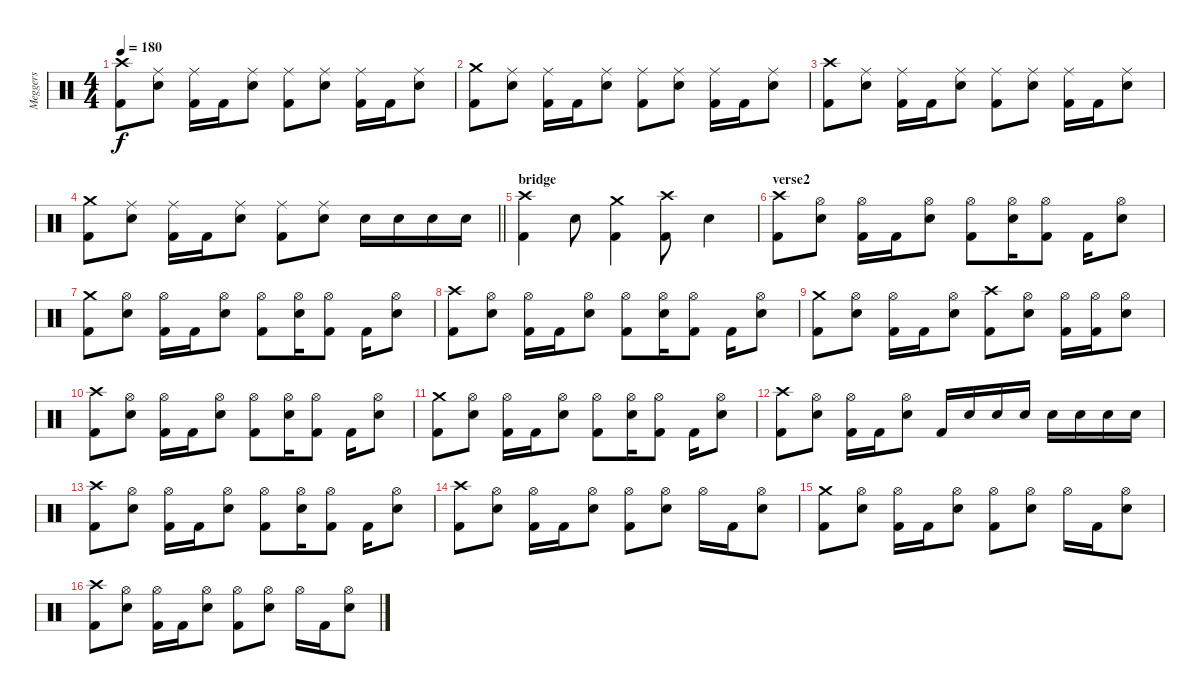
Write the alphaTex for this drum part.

\track ("Meggers" "Meggers") {instrument percussion}
\staff {score}
\articulation defaults
\ts (4 4)
\tempo 180
\clef neutral
\ks c
("Crash high (hit)" "Kick (hit) 2").8{dy f} ("Ride (middle)" "Snare (hit) 2").8 ("Ride (middle)" "Kick (hit) 2").16 "Kick (hit) 2".16 ("Ride (middle)" "Snare (hit) 2").8 ("Ride (middle)" "Kick (hit) 2").8 ("Ride (middle)" "Snare (hit) 2").8 ("Ride (middle)" "Kick (hit) 2").16 "Kick (hit) 2".16 ("Ride (middle)" "Snare (hit) 2").8 |
("Crash medium (hit)" "Kick (hit) 2").8 ("Ride (middle)" "Snare (hit) 2").8 ("Ride (middle)" "Kick (hit) 2").16 "Kick (hit) 2".16 ("Ride (middle)" "Snare (hit) 2").8 ("Ride (middle)" "Kick (hit) 2").8 ("Ride (middle)" "Snare (hit) 2").8 ("Ride (middle)" "Kick (hit) 2").16 "Kick (hit) 2".16 ("Ride (middle)" "Snare (hit) 2").8 |
("Crash high (hit)" "Kick (hit) 2").8 ("Ride (middle)" "Snare (hit) 2").8 ("Ride (middle)" "Kick (hit) 2").16 "Kick (hit) 2".16 ("Ride (middle)" "Snare (hit) 2").8 ("Ride (middle)" "Kick (hit) 2").8 ("Ride (middle)" "Snare (hit) 2").8 ("Ride (middle)" "Kick (hit) 2").16 "Kick (hit) 2".16 ("Ride (middle)" "Snare (hit) 2").8 |
\barLineRight lightlight
("Crash medium (hit)" "Kick (hit) 2").8 ("Ride (middle)" "Snare (hit) 2").8 ("Ride (middle)" "Kick (hit) 2").16 "Kick (hit) 2".16 ("Ride (middle)" "Snare (hit) 2").8 ("Ride (middle)" "Kick (hit) 2").8 ("Ride (middle)" "Snare (hit) 2").8 "Snare (hit) 2".16 "Snare (hit) 2".16 "Snare (hit) 2".16 "Snare (hit) 2".16 |
\section ("" "bridge")
("Crash high (hit)" "Kick (hit) 2").4 "Snare (hit) 2".8 ("Crash medium (hit)" "Kick (hit) 2").4 ("Crash high (hit)" "Kick (hit) 2").8 "Snare (hit) 2".4 |
\section ("" "verse2")
("Crash high (hit)" "Kick (hit) 2").8 ("Hi-Hat (open)" "Snare (hit) 2").8 ("Hi-Hat (open)" "Kick (hit) 2").16 "Kick (hit) 2".16 ("Hi-Hat (open)" "Snare (hit) 2").8 ("Hi-Hat (open)" "Kick (hit) 2").8 ("Hi-Hat (open)" "Snare (hit) 2").16 ("Hi-Hat (open)" "Kick (hit) 2").8 "Kick (hit) 2".16 ("Hi-Hat (open)" "Snare (hit) 2").8 |
("Crash medium (hit)" "Kick (hit) 2").8 ("Hi-Hat (open)" "Snare (hit) 2").8 ("Hi-Hat (open)" "Kick (hit) 2").16 "Kick (hit) 2".16 ("Hi-Hat (open)" "Snare (hit) 2").8 ("Hi-Hat (open)" "Kick (hit) 2").8 ("Hi-Hat (open)" "Snare (hit) 2").16 ("Hi-Hat (open)" "Kick (hit) 2").8 "Kick (hit) 2".16 ("Hi-Hat (open)" "Snare (hit) 2").8 |
("Crash high (hit)" "Kick (hit) 2").8 ("Hi-Hat (open)" "Snare (hit) 2").8 ("Hi-Hat (open)" "Kick (hit) 2").16 "Kick (hit) 2".16 ("Hi-Hat (open)" "Snare (hit) 2").8 ("Hi-Hat (open)" "Kick (hit) 2").8 ("Hi-Hat (open)" "Snare (hit) 2").16 ("Hi-Hat (open)" "Kick (hit) 2").8 "Kick (hit) 2".16 ("Hi-Hat (open)" "Snare (hit) 2").8 |
("Crash medium (hit)" "Kick (hit) 2").8 ("Hi-Hat (open)" "Snare (hit) 2").8 ("Hi-Hat (open)" "Kick (hit) 2").16 "Kick (hit) 2".16 ("Hi-Hat (open)" "Snare (hit) 2").8 ("Crash high (hit)" "Kick (hit) 2").8 ("Hi-Hat (open)" "Snare (hit) 2").8 ("Hi-Hat (open)" "Kick (hit) 2").16 ("Hi-Hat (open)" "Kick (hit) 2").16 ("Hi-Hat (open)" "Snare (hit) 2").8 |
("Crash high (hit)" "Kick (hit) 2").8 ("Hi-Hat (open)" "Snare (hit) 2").8 ("Hi-Hat (open)" "Kick (hit) 2").16 "Kick (hit) 2".16 ("Hi-Hat (open)" "Snare (hit) 2").8 ("Hi-Hat (open)" "Kick (hit) 2").8 ("Hi-Hat (open)" "Snare (hit) 2").16 ("Hi-Hat (open)" "Kick (hit) 2").8 "Kick (hit) 2".16 ("Hi-Hat (open)" "Snare (hit) 2").8 |
("Crash medium (hit)" "Kick (hit) 2").8 ("Hi-Hat (open)" "Snare (hit) 2").8 ("Hi-Hat (open)" "Kick (hit) 2").16 "Kick (hit) 2".16 ("Hi-Hat (open)" "Snare (hit) 2").8 ("Hi-Hat (open)" "Kick (hit) 2").8 ("Hi-Hat (open)" "Snare (hit) 2").16 ("Hi-Hat (open)" "Kick (hit) 2").8 "Kick (hit) 2".16 ("Hi-Hat (open)" "Snare (hit) 2").8 |
("Crash high (hit)" "Kick (hit) 2").8 ("Hi-Hat (open)" "Snare (hit) 2").8 ("Hi-Hat (open)" "Kick (hit) 2").16 "Kick (hit) 2".16 ("Hi-Hat (open)" "Snare (hit) 2").8 "Kick (hit) 2".16 "Snare (hit) 2".16 "Snare (hit) 2".16 "Snare (hit) 2".16 "Snare (hit) 2".16 "Snare (hit) 2".16 "Snare (hit) 2".16 "Snare (hit) 2".16 |
("Crash high (hit)" "Kick (hit) 2").8 ("Hi-Hat (open)" "Snare (hit) 2").8 ("Hi-Hat (open)" "Kick (hit) 2").16 "Kick (hit) 2".16 ("Hi-Hat (open)" "Snare (hit) 2").8 ("Hi-Hat (open)" "Kick (hit) 2").8 ("Hi-Hat (open)" "Snare (hit) 2").16 ("Hi-Hat (open)" "Kick (hit) 2").8 "Kick (hit) 2".16 ("Hi-Hat (open)" "Snare (hit) 2").8 |
("Crash high (hit)" "Kick (hit) 2").8 ("Hi-Hat (open)" "Snare (hit) 2").8 ("Hi-Hat (open)" "Kick (hit) 2").16 "Kick (hit) 2".16 ("Hi-Hat (open)" "Snare (hit) 2").8 ("Hi-Hat (open)" "Kick (hit) 2").8 ("Hi-Hat (open)" "Snare (hit) 2").8 "Hi-Hat (open)".16 "Kick (hit) 2".16 ("Hi-Hat (open)" "Snare (hit) 2").8 |
("Crash medium (hit)" "Kick (hit) 2").8 ("Hi-Hat (open)" "Snare (hit) 2").8 ("Hi-Hat (open)" "Kick (hit) 2").16 "Kick (hit) 2".16 ("Hi-Hat (open)" "Snare (hit) 2").8 ("Hi-Hat (open)" "Kick (hit) 2").8 ("Hi-Hat (open)" "Snare (hit) 2").8 "Hi-Hat (open)".16 "Kick (hit) 2".16 ("Hi-Hat (open)" "Snare (hit) 2").8 |
("Crash high (hit)" "Kick (hit) 2").8 ("Hi-Hat (open)" "Snare (hit) 2").8 ("Hi-Hat (open)" "Kick (hit) 2").16 "Kick (hit) 2".16 ("Hi-Hat (open)" "Snare (hit) 2").8 ("Hi-Hat (open)" "Kick (hit) 2").8 ("Hi-Hat (open)" "Snare (hit) 2").8 "Hi-Hat (open)".16 "Kick (hit) 2".16 ("Hi-Hat (open)" "Snare (hit) 2").8
